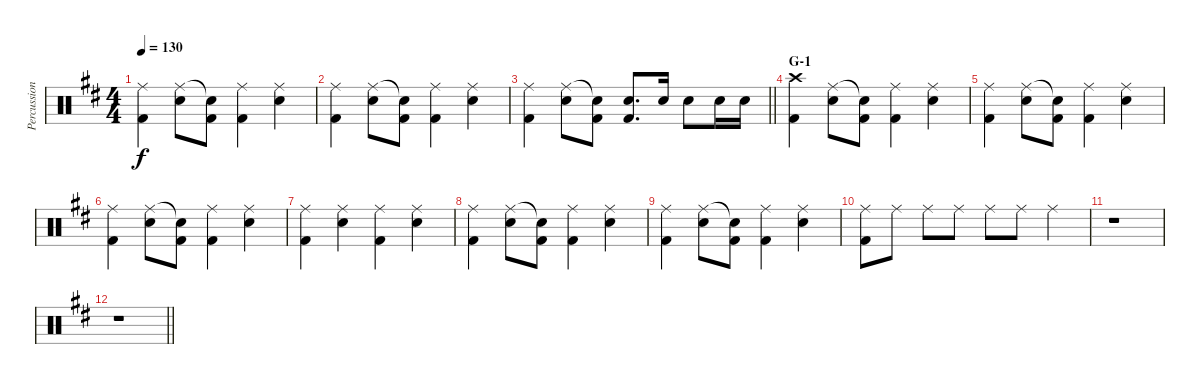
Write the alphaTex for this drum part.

\track ("Percussion" "Percussion") {instrument percussion}
\staff {score}
\articulation defaults
\ts (4 4)
\tempo 130
\clef neutral
\ks d
("Ride (middle)" "Kick (hit) 2").4{dy f} ("Ride (middle)" "Electric Snare (hit)").8 ("Snare (hit)"{t} "Kick (hit) 2").8 ("Ride (middle)" "Kick (hit) 2").4 ("Ride (middle)" "Electric Snare (hit)").4 |
("Ride (middle)" "Kick (hit) 2").4 ("Ride (middle)" "Electric Snare (hit)").8 ("Snare (hit)"{t} "Kick (hit) 2").8 ("Ride (middle)" "Kick (hit) 2").4 ("Ride (middle)" "Electric Snare (hit)").4 |
\barLineRight lightlight
("Ride (middle)" "Kick (hit) 2").4 ("Ride (middle)" "Electric Snare (hit)").8 ("Snare (hit)"{t} "Kick (hit) 2").8 ("Electric Snare (hit)" "Kick (hit) 2").8{d} "Electric Snare (hit)".16 "Electric Snare (hit)".8 "Electric Snare (hit)".16 "Electric Snare (hit)".16 |
\section ("" "G-1")
("Crash high (hit)" "Kick (hit) 2").4 ("Ride (middle)" "Electric Snare (hit)").8 ("Snare (hit)"{t} "Kick (hit) 2").8 ("Ride (middle)" "Kick (hit) 2").4 ("Ride (middle)" "Electric Snare (hit)").4 |
("Ride (middle)" "Kick (hit) 2").4 ("Ride (middle)" "Electric Snare (hit)").8 ("Snare (hit)"{t} "Kick (hit) 2").8 ("Ride (middle)" "Kick (hit) 2").4 ("Ride (middle)" "Electric Snare (hit)").4 |
("Ride (middle)" "Kick (hit) 2").4 ("Ride (middle)" "Electric Snare (hit)").8 ("Snare (hit)"{t} "Kick (hit) 2").8 ("Ride (middle)" "Kick (hit) 2").4 ("Ride (middle)" "Electric Snare (hit)").4 |
("Ride (middle)" "Kick (hit) 2").4 ("Ride (middle)" "Electric Snare (hit)").4 ("Ride (middle)" "Kick (hit) 2").4 ("Ride (middle)" "Electric Snare (hit)").4 |
("Ride (middle)" "Kick (hit) 2").4 ("Ride (middle)" "Electric Snare (hit)").8 ("Snare (hit)"{t} "Kick (hit) 2").8 ("Ride (middle)" "Kick (hit) 2").4 ("Ride (middle)" "Electric Snare (hit)").4 |
("Ride (middle)" "Kick (hit) 2").4 ("Ride (middle)" "Electric Snare (hit)").8 ("Snare (hit)"{t} "Kick (hit) 2").8 ("Ride (middle)" "Kick (hit) 2").4 ("Ride (middle)" "Electric Snare (hit)").4 |
("Ride (middle)" "Kick (hit) 2").8 "Ride (middle)".8 "Ride (middle)".8 "Ride (middle)".8 "Ride (middle)".8 "Ride (middle)".8 "Ride (middle)".4 |
r.1 |
\barLineRight lightlight
r.1
